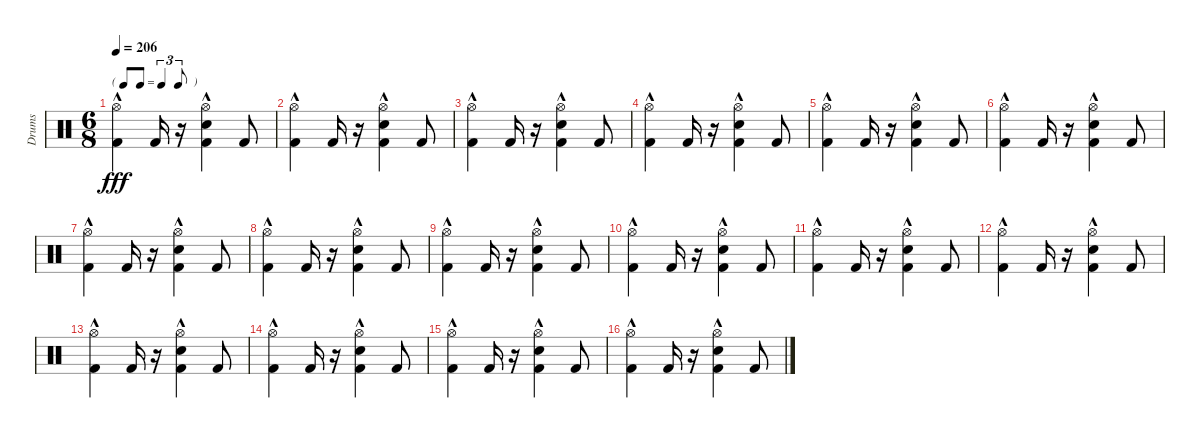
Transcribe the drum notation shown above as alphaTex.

\track ("Drums" "Drums") {instrument percussion}
\staff {score}
\articulation defaults
\ts (6 8)
\tf triplet8th
\tempo 206
\clef neutral
\ks c
("Hi-Hat (open)" "Kick (hit) 2"{hac}).4{dy fff} "Kick (hit) 2".16 r.16 ("Hi-Hat (open)" "Snare (hit) 2"{hac} "Kick (hit) 2").4 "Kick (hit) 2".8 |
("Hi-Hat (open)" "Kick (hit) 2"{hac}).4 "Kick (hit) 2".16 r.16 ("Hi-Hat (open)" "Snare (hit) 2"{hac} "Kick (hit) 2").4 "Kick (hit) 2".8 |
("Hi-Hat (open)" "Kick (hit) 2"{hac}).4 "Kick (hit) 2".16 r.16 ("Hi-Hat (open)" "Snare (hit) 2"{hac} "Kick (hit) 2").4 "Kick (hit) 2".8 |
("Hi-Hat (open)" "Kick (hit) 2"{hac}).4 "Kick (hit) 2".16 r.16 ("Hi-Hat (open)" "Snare (hit) 2"{hac} "Kick (hit) 2").4 "Kick (hit) 2".8 |
("Hi-Hat (open)" "Kick (hit) 2"{hac}).4 "Kick (hit) 2".16 r.16 ("Hi-Hat (open)" "Snare (hit) 2"{hac} "Kick (hit) 2").4 "Kick (hit) 2".8 |
("Hi-Hat (open)" "Kick (hit) 2"{hac}).4 "Kick (hit) 2".16 r.16 ("Hi-Hat (open)" "Snare (hit) 2"{hac} "Kick (hit) 2").4 "Kick (hit) 2".8 |
("Hi-Hat (open)" "Kick (hit) 2"{hac}).4 "Kick (hit) 2".16 r.16 ("Hi-Hat (open)" "Snare (hit) 2"{hac} "Kick (hit) 2").4 "Kick (hit) 2".8 |
("Hi-Hat (open)" "Kick (hit) 2"{hac}).4 "Kick (hit) 2".16 r.16 ("Hi-Hat (open)" "Snare (hit) 2"{hac} "Kick (hit) 2").4 "Kick (hit) 2".8 |
("Hi-Hat (open)" "Kick (hit) 2"{hac}).4 "Kick (hit) 2".16 r.16 ("Hi-Hat (open)" "Snare (hit) 2"{hac} "Kick (hit) 2").4 "Kick (hit) 2".8 |
("Hi-Hat (open)" "Kick (hit) 2"{hac}).4 "Kick (hit) 2".16 r.16 ("Hi-Hat (open)" "Snare (hit) 2"{hac} "Kick (hit) 2").4 "Kick (hit) 2".8 |
("Hi-Hat (open)" "Kick (hit) 2"{hac}).4 "Kick (hit) 2".16 r.16 ("Hi-Hat (open)" "Snare (hit) 2"{hac} "Kick (hit) 2").4 "Kick (hit) 2".8 |
("Hi-Hat (open)" "Kick (hit) 2"{hac}).4 "Kick (hit) 2".16 r.16 ("Hi-Hat (open)" "Snare (hit) 2"{hac} "Kick (hit) 2").4 "Kick (hit) 2".8 |
("Hi-Hat (open)" "Kick (hit) 2"{hac}).4 "Kick (hit) 2".16 r.16 ("Hi-Hat (open)" "Snare (hit) 2"{hac} "Kick (hit) 2").4 "Kick (hit) 2".8 |
("Hi-Hat (open)" "Kick (hit) 2"{hac}).4 "Kick (hit) 2".16 r.16 ("Hi-Hat (open)" "Snare (hit) 2"{hac} "Kick (hit) 2").4 "Kick (hit) 2".8 |
("Hi-Hat (open)" "Kick (hit) 2"{hac}).4 "Kick (hit) 2".16 r.16 ("Hi-Hat (open)" "Snare (hit) 2"{hac} "Kick (hit) 2").4 "Kick (hit) 2".8 |
("Hi-Hat (open)" "Kick (hit) 2"{hac}).4 "Kick (hit) 2".16 r.16 ("Hi-Hat (open)" "Snare (hit) 2"{hac} "Kick (hit) 2").4 "Kick (hit) 2".8
